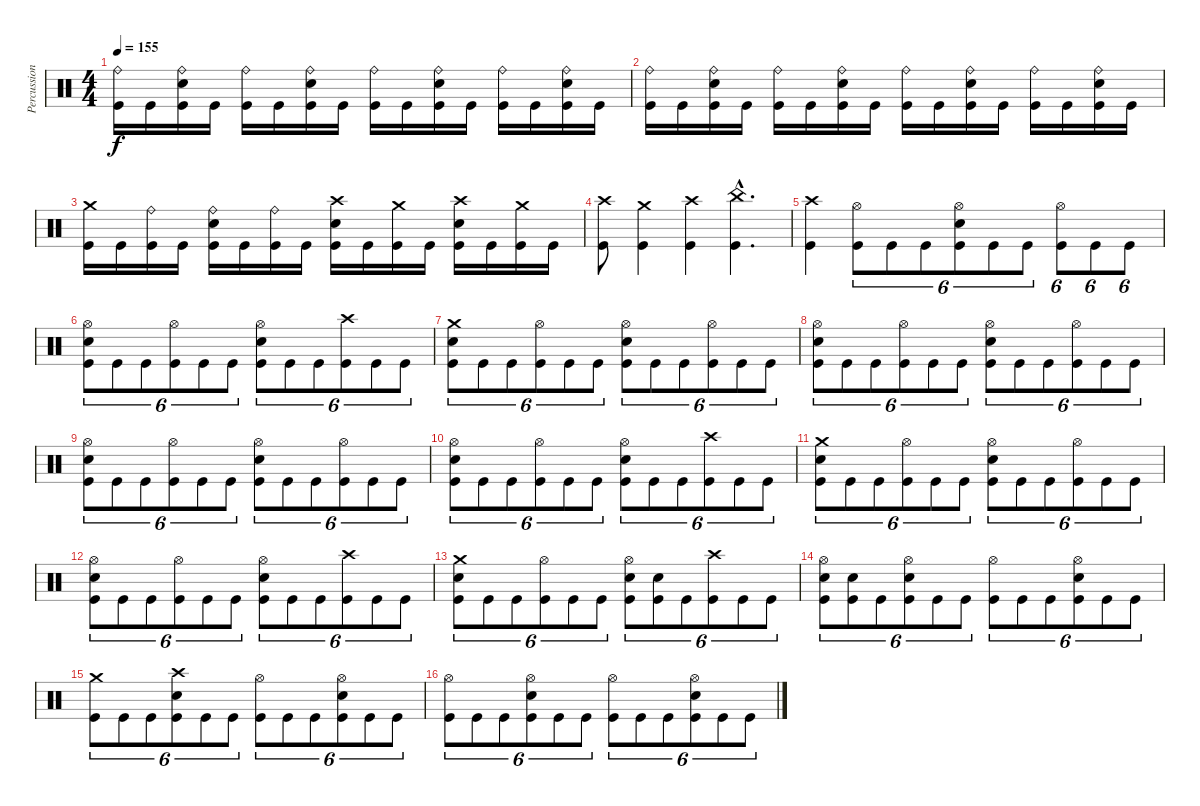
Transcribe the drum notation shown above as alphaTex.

\track ("Percussion" "Percussion") {instrument percussion}
\staff {score}
\articulation defaults
\ts (4 4)
\tempo 155
\clef neutral
\ks c
("Ride (bell)" "Kick (hit)").16{dy f} "Kick (hit)".16 ("Ride (bell)" "Snare (hit) 2" "Kick (hit)").16 "Kick (hit)".16 ("Ride (bell)" "Kick (hit)").16 "Kick (hit)".16 ("Ride (bell)" "Snare (hit) 2" "Kick (hit)").16 "Kick (hit)".16 ("Ride (bell)" "Kick (hit)").16 "Kick (hit)".16 ("Ride (bell)" "Snare (hit) 2" "Kick (hit)").16 "Kick (hit)".16 ("Ride (bell)" "Kick (hit)").16 "Kick (hit)".16 ("Ride (bell)" "Snare (hit) 2" "Kick (hit)").16 "Kick (hit)".16 |
("Ride (bell)" "Kick (hit)").16 "Kick (hit)".16 ("Ride (bell)" "Snare (hit) 2" "Kick (hit)").16 "Kick (hit)".16 ("Ride (bell)" "Kick (hit)").16 "Kick (hit)".16 ("Ride (bell)" "Snare (hit) 2" "Kick (hit)").16 "Kick (hit)".16 ("Ride (bell)" "Kick (hit)").16 "Kick (hit)".16 ("Ride (bell)" "Snare (hit) 2" "Kick (hit)").16 "Kick (hit)".16 ("Ride (bell)" "Kick (hit)").16 "Kick (hit)".16 ("Ride (bell)" "Snare (hit) 2" "Kick (hit)").16 "Kick (hit)".16 |
("Crash medium (hit)" "Kick (hit)").16 "Kick (hit)".16 ("Ride (bell)" "Kick (hit)").16 "Kick (hit)".16 ("Ride (bell)" "Snare (hit) 2" "Kick (hit)").16 "Kick (hit)".16 ("Ride (bell)" "Kick (hit)").16 "Kick (hit)".16 ("Crash high (hit)" "Snare (hit) 2" "Kick (hit)").16 "Kick (hit)".16 ("Crash medium (hit)" "Kick (hit)").16 "Kick (hit)".16 ("Crash high (hit)" "Snare (hit) 2" "Kick (hit)").16 "Kick (hit)".16 ("Crash medium (hit)" "Kick (hit)").16 "Kick (hit)".16 |
("Crash high (hit)" "Kick (hit)").8 ("Crash medium (hit)" "Kick (hit)").4 ("Crash high (hit)" "Kick (hit)").4 ("China (hit)"{hac} "Kick (hit)"{hac}).4{d} |
("Crash high (hit)" "Kick (hit)").4 ("Hi-Hat (open)" "Kick (hit)").8{tu (6 4)} "Kick (hit)".8{tu (6 4)} "Kick (hit)".8{tu (6 4)} ("Hi-Hat (open)" "Snare (hit) 2" "Kick (hit)").8{tu (6 4)} "Kick (hit)".8{tu (6 4)} "Kick (hit)".8{tu (6 4)} ("Hi-Hat (open)" "Kick (hit)").8{tu (6 4)} "Kick (hit)".8{tu (6 4)} "Kick (hit)".8{tu (6 4)} |
("Hi-Hat (open)" "Snare (hit) 2" "Kick (hit)").8{tu (6 4)} "Kick (hit)".8{tu (6 4)} "Kick (hit)".8{tu (6 4)} ("Hi-Hat (open)" "Kick (hit)").8{tu (6 4)} "Kick (hit)".8{tu (6 4)} "Kick (hit)".8{tu (6 4)} ("Hi-Hat (open)" "Snare (hit) 2" "Kick (hit)").8{tu (6 4)} "Kick (hit)".8{tu (6 4)} "Kick (hit)".8{tu (6 4)} ("Crash high (hit)" "Kick (hit)").8{tu (6 4)} "Kick (hit)".8{tu (6 4)} "Kick (hit)".8{tu (6 4)} |
("Crash medium (hit)" "Snare (hit) 2" "Kick (hit)").8{tu (6 4)} "Kick (hit)".8{tu (6 4)} "Kick (hit)".8{tu (6 4)} ("Hi-Hat (open)" "Kick (hit)").8{tu (6 4)} "Kick (hit)".8{tu (6 4)} "Kick (hit)".8{tu (6 4)} ("Hi-Hat (open)" "Snare (hit) 2" "Kick (hit)").8{tu (6 4)} "Kick (hit)".8{tu (6 4)} "Kick (hit)".8{tu (6 4)} ("Hi-Hat (open)" "Kick (hit)").8{tu (6 4)} "Kick (hit)".8{tu (6 4)} "Kick (hit)".8{tu (6 4)} |
("Hi-Hat (open)" "Snare (hit) 2" "Kick (hit)").8{tu (6 4)} "Kick (hit)".8{tu (6 4)} "Kick (hit)".8{tu (6 4)} ("Hi-Hat (open)" "Kick (hit)").8{tu (6 4)} "Kick (hit)".8{tu (6 4)} "Kick (hit)".8{tu (6 4)} ("Hi-Hat (open)" "Snare (hit) 2" "Kick (hit)").8{tu (6 4)} "Kick (hit)".8{tu (6 4)} "Kick (hit)".8{tu (6 4)} ("Hi-Hat (open)" "Kick (hit)").8{tu (6 4)} "Kick (hit)".8{tu (6 4)} "Kick (hit)".8{tu (6 4)} |
("Hi-Hat (open)" "Snare (hit) 2" "Kick (hit)").8{tu (6 4)} "Kick (hit)".8{tu (6 4)} "Kick (hit)".8{tu (6 4)} ("Hi-Hat (open)" "Kick (hit)").8{tu (6 4)} "Kick (hit)".8{tu (6 4)} "Kick (hit)".8{tu (6 4)} ("Hi-Hat (open)" "Snare (hit) 2" "Kick (hit)").8{tu (6 4)} "Kick (hit)".8{tu (6 4)} "Kick (hit)".8{tu (6 4)} ("Hi-Hat (open)" "Kick (hit)").8{tu (6 4)} "Kick (hit)".8{tu (6 4)} "Kick (hit)".8{tu (6 4)} |
("Hi-Hat (open)" "Snare (hit) 2" "Kick (hit)").8{tu (6 4)} "Kick (hit)".8{tu (6 4)} "Kick (hit)".8{tu (6 4)} ("Hi-Hat (open)" "Kick (hit)").8{tu (6 4)} "Kick (hit)".8{tu (6 4)} "Kick (hit)".8{tu (6 4)} ("Hi-Hat (open)" "Snare (hit) 2" "Kick (hit)").8{tu (6 4)} "Kick (hit)".8{tu (6 4)} "Kick (hit)".8{tu (6 4)} ("Crash high (hit)" "Kick (hit)").8{tu (6 4)} "Kick (hit)".8{tu (6 4)} "Kick (hit)".8{tu (6 4)} |
("Crash medium (hit)" "Snare (hit) 2" "Kick (hit)").8{tu (6 4)} "Kick (hit)".8{tu (6 4)} "Kick (hit)".8{tu (6 4)} ("Hi-Hat (open)" "Kick (hit)").8{tu (6 4)} "Kick (hit)".8{tu (6 4)} "Kick (hit)".8{tu (6 4)} ("Hi-Hat (open)" "Snare (hit) 2" "Kick (hit)").8{tu (6 4)} "Kick (hit)".8{tu (6 4)} "Kick (hit)".8{tu (6 4)} ("Hi-Hat (open)" "Kick (hit)").8{tu (6 4)} "Kick (hit)".8{tu (6 4)} "Kick (hit)".8{tu (6 4)} |
("Hi-Hat (open)" "Snare (hit) 2" "Kick (hit)").8{tu (6 4)} "Kick (hit)".8{tu (6 4)} "Kick (hit)".8{tu (6 4)} ("Hi-Hat (open)" "Kick (hit)").8{tu (6 4)} "Kick (hit)".8{tu (6 4)} "Kick (hit)".8{tu (6 4)} ("Hi-Hat (open)" "Snare (hit) 2" "Kick (hit)").8{tu (6 4)} "Kick (hit)".8{tu (6 4)} "Kick (hit)".8{tu (6 4)} ("Crash high (hit)" "Kick (hit)").8{tu (6 4)} "Kick (hit)".8{tu (6 4)} "Kick (hit)".8{tu (6 4)} |
("Crash medium (hit)" "Snare (hit) 2" "Kick (hit)").8{tu (6 4)} "Kick (hit)".8{tu (6 4)} "Kick (hit)".8{tu (6 4)} ("Hi-Hat (open)" "Kick (hit)").8{tu (6 4)} "Kick (hit)".8{tu (6 4)} "Kick (hit)".8{tu (6 4)} ("Hi-Hat (open)" "Snare (hit) 2" "Kick (hit)").8{tu (6 4)} ("Snare (hit) 2" "Kick (hit)").8{tu (6 4)} "Kick (hit)".8{tu (6 4)} ("Crash high (hit)" "Kick (hit)").8{tu (6 4)} "Kick (hit)".8{tu (6 4)} "Kick (hit)".8{tu (6 4)} |
("Hi-Hat (open)" "Snare (hit) 2" "Kick (hit)").8{tu (6 4)} ("Snare (hit) 2" "Kick (hit)").8{tu (6 4)} "Kick (hit)".8{tu (6 4)} ("Hi-Hat (open)" "Snare (hit) 2" "Kick (hit)").8{tu (6 4)} "Kick (hit)".8{tu (6 4)} "Kick (hit)".8{tu (6 4)} ("Hi-Hat (open)" "Kick (hit)").8{tu (6 4)} "Kick (hit)".8{tu (6 4)} "Kick (hit)".8{tu (6 4)} ("Hi-Hat (open)" "Snare (hit) 2" "Kick (hit)").8{tu (6 4)} "Kick (hit)".8{tu (6 4)} "Kick (hit)".8{tu (6 4)} |
("Crash medium (hit)" "Kick (hit)").8{tu (6 4)} "Kick (hit)".8{tu (6 4)} "Kick (hit)".8{tu (6 4)} ("Crash high (hit)" "Snare (hit) 2" "Kick (hit)").8{tu (6 4)} "Kick (hit)".8{tu (6 4)} "Kick (hit)".8{tu (6 4)} ("Hi-Hat (open)" "Kick (hit)").8{tu (6 4)} "Kick (hit)".8{tu (6 4)} "Kick (hit)".8{tu (6 4)} ("Hi-Hat (open)" "Snare (hit) 2" "Kick (hit)").8{tu (6 4)} "Kick (hit)".8{tu (6 4)} "Kick (hit)".8{tu (6 4)} |
("Hi-Hat (open)" "Kick (hit)").8{tu (6 4)} "Kick (hit)".8{tu (6 4)} "Kick (hit)".8{tu (6 4)} ("Hi-Hat (open)" "Snare (hit) 2" "Kick (hit)").8{tu (6 4)} "Kick (hit)".8{tu (6 4)} "Kick (hit)".8{tu (6 4)} ("Hi-Hat (open)" "Kick (hit)").8{tu (6 4)} "Kick (hit)".8{tu (6 4)} "Kick (hit)".8{tu (6 4)} ("Hi-Hat (open)" "Snare (hit) 2" "Kick (hit)").8{tu (6 4)} "Kick (hit)".8{tu (6 4)} "Kick (hit)".8{tu (6 4)}
